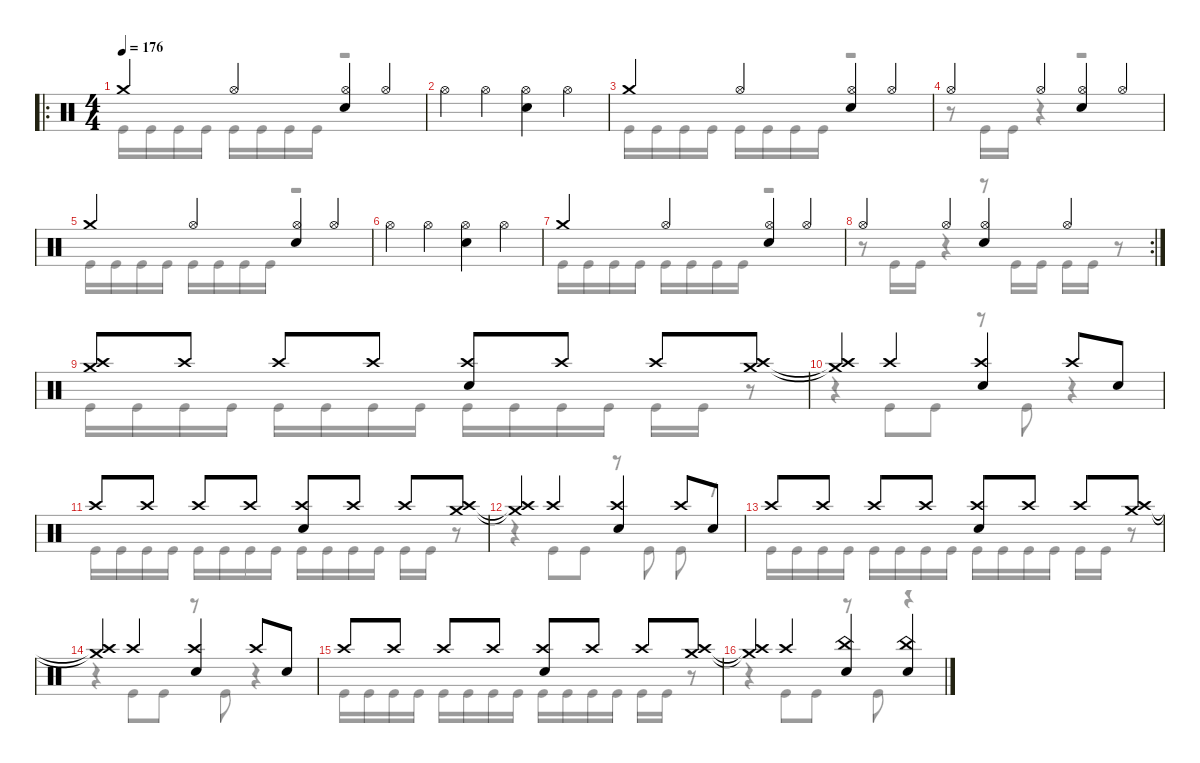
\defaultSystemsLayout 4
\hideDynamics
\bracketExtendMode nobrackets
\singleTrackTrackNamePolicy hidden
\multiTrackTrackNamePolicy hidden
\firstSystemTrackNameMode fullname
\firstSystemTrackNameOrientation horizontal
\otherSystemsTrackNameOrientation horizontal
\track ("Drums" "drm.") {instrument percussion}
\staff {score}
\articulation defaults
\voice
\ro
\ts (4 4)
\tempo 176
\clef neutral
\ks c "Crash medium (hit)".4{dy f beam Up} "Hi-Hat (open)".4{beam Up}
("Hi-Hat (open)" "Snare (hit) 2").4{beam Up} "Hi-Hat (open)".4{beam Up} |
"Hi-Hat (open)".4{beam Down} "Hi-Hat (open)".4{beam Down} ("Hi-Hat (open)" "Snare (hit) 2").4{beam Down} "Hi-Hat (open)".4{beam Down} |
"Crash medium (hit)".4{beam Up} "Hi-Hat (open)".4{beam Up} ("Hi-Hat (open)" "Snare (hit) 2").4{beam Up} "Hi-Hat (open)".4{beam Up} |
"Hi-Hat (open)".4{beam Up} "Hi-Hat (open)".4{beam Up} ("Hi-Hat (open)" "Snare (hit) 2").4{beam Up} "Hi-Hat (open)".4{beam Up} |
"Crash medium (hit)".4{beam Up} "Hi-Hat (open)".4{beam Up} ("Hi-Hat (open)" "Snare (hit) 2").4{beam Up} "Hi-Hat (open)".4{beam Up} |
"Hi-Hat (open)".4{beam Down} "Hi-Hat (open)".4{beam Down} ("Hi-Hat (open)" "Snare (hit) 2").4{beam Down} "Hi-Hat (open)".4{beam Down} |
"Crash medium (hit)".4{beam Up} "Hi-Hat (open)".4{beam Up} ("Hi-Hat (open)" "Snare (hit) 2").4{beam Up} "Hi-Hat (open)".4{beam Up} |
\rc 2 "Hi-Hat (open)".4{beam Up} "Hi-Hat (open)".4{beam Up}
("Hi-Hat (open)" "Snare (hit) 2").4{beam Up} "Hi-Hat (open)".4{beam Up} |
("Crash high (hit)" "Crash medium (hit)").8{beam Up} "Crash high (hit)".8{beam Up} "Crash high (hit)".8{beam Up} "Crash high (hit)".8{beam Up} ("Snare (hit) 2" "Crash high (hit)").8{beam Up} "Crash high (hit)".8{beam Up} "Crash high (hit)".8{beam Up} ("Crash high (hit)" "Crash medium (hit)").8{beam Up} |
("Crash high (hit)"{t} "Crash medium (hit)"{t}).4{dy mf beam Up} "Crash high (hit)".4{dy f beam Up} ("Snare (hit) 2" "Crash high (hit)").4{beam Up} "Crash high (hit)".8{beam Up} "Snare (hit) 2".8{beam Up} |
"Crash high (hit)".8{beam Up} "Crash high (hit)".8{beam Up} "Crash high (hit)".8{beam Up} "Crash high (hit)".8{beam Up} ("Snare (hit) 2" "Crash high (hit)").8{beam Up} "Crash high (hit)".8{beam Up} "Crash high (hit)".8{beam Up} ("Crash high (hit)" "Crash medium (hit)").8{beam Up} |
("Crash high (hit)"{t} "Crash medium (hit)"{t}).4{dy mf beam Up} "Crash high (hit)".4{dy f beam Up} ("Snare (hit) 2" "Crash high (hit)").4{beam Up} "Crash high (hit)".8{beam Up} "Snare (hit) 2".8{beam Up} |
"Crash high (hit)".8{beam Up} "Crash high (hit)".8{beam Up} "Crash high (hit)".8{beam Up} "Crash high (hit)".8{beam Up} ("Snare (hit) 2" "Crash high (hit)").8{beam Up} "Crash high (hit)".8{beam Up} "Crash high (hit)".8{beam Up} ("Crash high (hit)" "Crash medium (hit)").8{beam Up} |
("Crash high (hit)"{t} "Crash medium (hit)"{t}).4{dy mf beam Up} "Crash high (hit)".4{dy f beam Up} ("Snare (hit) 2" "Crash high (hit)").4{beam Up} "Crash high (hit)".8{beam Up} "Snare (hit) 2".8{beam Up} |
"Crash high (hit)".8{beam Up} "Crash high (hit)".8{beam Up} "Crash high (hit)".8{beam Up} "Crash high (hit)".8{beam Up} ("Snare (hit) 2" "Crash high (hit)").8{beam Up} "Crash high (hit)".8{beam Up} "Crash high (hit)".8{beam Up} ("Crash high (hit)" "Crash medium (hit)").8{beam Up} |
("Crash high (hit)"{t} "Crash medium (hit)"{t}).4{dy mf beam Up} "Crash high (hit)".4{dy f beam Up} ("Snare (hit) 2" "China (hit)").4{beam Up} ("China (hit)" "Snare (hit) 2").4{beam Up}
\voice
\clef neutral
\ottava regular
\simile none
\ks c "Kick (hit)".16{dy f beam Down} "Kick (hit)".16{beam Down} "Kick (hit)".16{beam Down} "Kick (hit)".16{beam Down} "Kick (hit)".16{beam Down} "Kick (hit)".16{beam Down} "Kick (hit)".16{beam Down} "Kick (hit)".16{beam Down}
r.2{beam Down} |
|
"Kick (hit)".16{beam Down} "Kick (hit)".16{beam Down} "Kick (hit)".16{beam Down} "Kick (hit)".16{beam Down} "Kick (hit)".16{beam Down} "Kick (hit)".16{beam Down} "Kick (hit)".16{beam Down} "Kick (hit)".16{beam Down} r.2{beam Down} |
r.8{beam Down} "Kick (hit)".16{beam Down} "Kick (hit)".16{beam Down} r.4{beam Down} r.2{beam Down} |
"Kick (hit)".16{beam Down} "Kick (hit)".16{beam Down} "Kick (hit)".16{beam Down} "Kick (hit)".16{beam Down} "Kick (hit)".16{beam Down} "Kick (hit)".16{beam Down} "Kick (hit)".16{beam Down} "Kick (hit)".16{beam Down} r.2{beam Down} |
|
"Kick (hit)".16{beam Down} "Kick (hit)".16{beam Down} "Kick (hit)".16{beam Down} "Kick (hit)".16{beam Down} "Kick (hit)".16{beam Down} "Kick (hit)".16{beam Down} "Kick (hit)".16{beam Down} "Kick (hit)".16{beam Down} r.2{beam Down} |
r.8{beam Down} "Kick (hit)".16{beam Down} "Kick (hit)".16{beam Down} r.4{beam Down} r.8{beam Down} "Kick (hit)".16{beam Down} "Kick (hit)".16{beam Down} "Kick (hit)".16{beam Down} "Kick (hit)".16{beam Down} r.8{beam Down} |
"Kick (hit)".16{beam Down} "Kick (hit)".16{beam Down} "Kick (hit)".16{beam Down} "Kick (hit)".16{beam Down} "Kick (hit)".16{beam Down} "Kick (hit)".16{beam Down} "Kick (hit)".16{beam Down} "Kick (hit)".16{beam Down} "Kick (hit)".16{beam Down} "Kick (hit)".16{beam Down} "Kick (hit)".16{beam Down} "Kick (hit)".16{beam Down} "Kick (hit)".16{beam Down} "Kick (hit)".16{beam Down} r.8{beam Down} |
r.4{beam Down} "Kick (hit)".8{beam Down} "Kick (hit)".8{beam Down} r.8{beam Down} "Kick (hit)".8{beam Down} r.4{beam Down} |
"Kick (hit)".16{beam Down} "Kick (hit)".16{beam Down} "Kick (hit)".16{beam Down} "Kick (hit)".16{beam Down} "Kick (hit)".16{beam Down} "Kick (hit)".16{beam Down} "Kick (hit)".16{beam Down} "Kick (hit)".16{beam Down} "Kick (hit)".16{beam Down} "Kick (hit)".16{beam Down} "Kick (hit)".16{beam Down} "Kick (hit)".16{beam Down} "Kick (hit)".16{beam Down} "Kick (hit)".16{beam Down} r.8{beam Down} |
r.4{beam Down} "Kick (hit)".8{beam Down} "Kick (hit)".8{beam Down} r.8{beam Down} "Kick (hit)".8{beam Down} "Kick (hit)".8{beam Down} r.8{beam Down} |
"Kick (hit)".16{beam Down} "Kick (hit)".16{beam Down} "Kick (hit)".16{beam Down} "Kick (hit)".16{beam Down} "Kick (hit)".16{beam Down} "Kick (hit)".16{beam Down} "Kick (hit)".16{beam Down} "Kick (hit)".16{beam Down} "Kick (hit)".16{beam Down} "Kick (hit)".16{beam Down} "Kick (hit)".16{beam Down} "Kick (hit)".16{beam Down} "Kick (hit)".16{beam Down} "Kick (hit)".16{beam Down} r.8{beam Down} |
r.4{beam Down} "Kick (hit)".8{beam Down} "Kick (hit)".8{beam Down} r.8{beam Down} "Kick (hit)".8{beam Down} r.4{beam Down} |
"Kick (hit)".16{beam Down} "Kick (hit)".16{beam Down} "Kick (hit)".16{beam Down} "Kick (hit)".16{beam Down} "Kick (hit)".16{beam Down} "Kick (hit)".16{beam Down} "Kick (hit)".16{beam Down} "Kick (hit)".16{beam Down} "Kick (hit)".16{beam Down} "Kick (hit)".16{beam Down} "Kick (hit)".16{beam Down} "Kick (hit)".16{beam Down} "Kick (hit)".16{beam Down} "Kick (hit)".16{beam Down} r.8{beam Down} |
r.4{beam Down} "Kick (hit)".8{beam Down} "Kick (hit)".8{beam Down} r.8{beam Down} "Kick (hit)".8{beam Down} r.4{beam Down}
